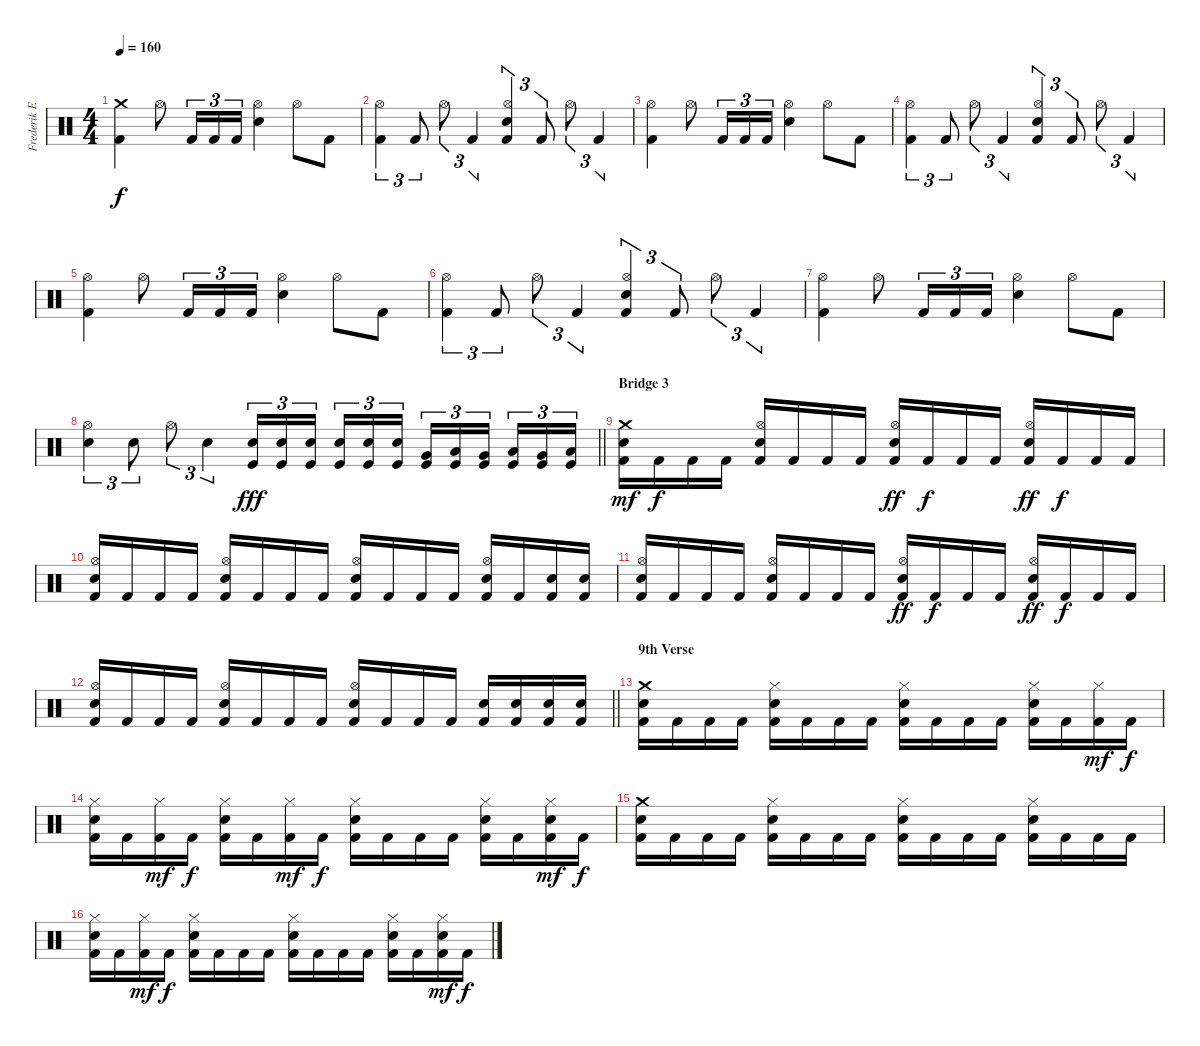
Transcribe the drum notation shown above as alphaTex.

\track ("Frederik Ehmke" "Frederik E") {instrument percussion}
\staff {score}
\articulation defaults
\ts (4 4)
\tempo 160
\clef neutral
\ks c
("Crash medium (hit)" "Kick (hit) 2").4{dy f} "Hi-Hat (open)".8 "Kick (hit) 2".16{tu (3 2)} "Kick (hit) 2".16{tu (3 2)} "Kick (hit) 2".16{tu (3 2)} ("Hi-Hat (open)" "Electric Snare (hit)").4 "Hi-Hat (open)".8 "Kick (hit) 2".8 |
("Hi-Hat (open)" "Kick (hit) 2").4{tu (3 2)} "Kick (hit) 2".8{tu (3 2)} "Hi-Hat (open)".8{tu (3 2)} "Kick (hit) 2".4{tu (3 2)} ("Hi-Hat (open)" "Electric Snare (hit)" "Kick (hit) 2").4{tu (3 2)} "Kick (hit) 2".8{tu (3 2)} "Hi-Hat (open)".8{tu (3 2)} "Kick (hit) 2".4{tu (3 2)} |
("Hi-Hat (open)" "Kick (hit) 2").4 "Hi-Hat (open)".8 "Kick (hit) 2".16{tu (3 2)} "Kick (hit) 2".16{tu (3 2)} "Kick (hit) 2".16{tu (3 2)} ("Hi-Hat (open)" "Electric Snare (hit)").4 "Hi-Hat (open)".8 "Kick (hit) 2".8 |
("Hi-Hat (open)" "Kick (hit) 2").4{tu (3 2)} "Kick (hit) 2".8{tu (3 2)} "Hi-Hat (open)".8{tu (3 2)} "Kick (hit) 2".4{tu (3 2)} ("Hi-Hat (open)" "Electric Snare (hit)" "Kick (hit) 2").4{tu (3 2)} "Kick (hit) 2".8{tu (3 2)} "Hi-Hat (open)".8{tu (3 2)} "Kick (hit) 2".4{tu (3 2)} |
("Hi-Hat (open)" "Kick (hit) 2").4 "Hi-Hat (open)".8 "Kick (hit) 2".16{tu (3 2)} "Kick (hit) 2".16{tu (3 2)} "Kick (hit) 2".16{tu (3 2)} ("Hi-Hat (open)" "Electric Snare (hit)").4 "Hi-Hat (open)".8 "Kick (hit) 2".8 |
("Hi-Hat (open)" "Kick (hit) 2").4{tu (3 2)} "Kick (hit) 2".8{tu (3 2)} "Hi-Hat (open)".8{tu (3 2)} "Kick (hit) 2".4{tu (3 2)} ("Hi-Hat (open)" "Electric Snare (hit)" "Kick (hit) 2").4{tu (3 2)} "Kick (hit) 2".8{tu (3 2)} "Hi-Hat (open)".8{tu (3 2)} "Kick (hit) 2".4{tu (3 2)} |
("Hi-Hat (open)" "Kick (hit) 2").4 "Hi-Hat (open)".8 "Kick (hit) 2".16{tu (3 2)} "Kick (hit) 2".16{tu (3 2)} "Kick (hit) 2".16{tu (3 2)} ("Hi-Hat (open)" "Electric Snare (hit)").4 "Hi-Hat (open)".8 "Kick (hit) 2".8 |
\barLineRight lightlight
("Hi-Hat (open)" "Electric Snare (hit)").4{tu (3 2)} "Electric Snare (hit)".8{tu (3 2)} "Hi-Hat (open)".8{tu (3 2)} "Electric Snare (hit)".4{tu (3 2)} ("Electric Snare (hit)" "Kick (hit)").16{tu (3 2) dy fff} ("Electric Snare (hit)" "Kick (hit)").16{tu (3 2)} ("Electric Snare (hit)" "Kick (hit)").16{tu (3 2) beam splitsecondary} ("Electric Snare (hit)" "Kick (hit)").16{tu (3 2)} ("Electric Snare (hit)" "Kick (hit)").16{tu (3 2)} ("Electric Snare (hit)" "Kick (hit)").16{tu (3 2)} ("Very Low Tom (hit)" "Kick (hit)").16{tu (3 2)} ("Low Floor Tom (hit)" "Kick (hit)").16{tu (3 2)} ("Very Low Tom (hit)" "Kick (hit)").16{tu (3 2) beam splitsecondary} ("Low Floor Tom (hit)" "Kick (hit)").16{tu (3 2)} ("Very Low Tom (hit)" "Kick (hit)").16{tu (3 2)} ("Low Floor Tom (hit)" "Kick (hit)").16{tu (3 2)} |
\section ("" "Bridge 3")
("Crash medium (hit)" "Electric Snare (hit)" "Kick (hit) 2").16{dy mf} "Kick (hit) 2".16{dy f} "Kick (hit) 2".16 "Kick (hit) 2".16 ("Hi-Hat (open)" "Electric Snare (hit)" "Kick (hit) 2").16 "Kick (hit) 2".16 "Kick (hit) 2".16 "Kick (hit) 2".16 ("Hi-Hat (open)" "Electric Snare (hit)" "Kick (hit) 2").16{dy ff} "Kick (hit) 2".16{dy f} "Kick (hit) 2".16 "Kick (hit) 2".16 ("Hi-Hat (open)" "Electric Snare (hit)" "Kick (hit) 2").16{dy ff} "Kick (hit) 2".16{dy f} "Kick (hit) 2".16 "Kick (hit) 2".16 |
("Hi-Hat (open)" "Electric Snare (hit)" "Kick (hit) 2").16 "Kick (hit) 2".16 "Kick (hit) 2".16 "Kick (hit) 2".16 ("Hi-Hat (open)" "Electric Snare (hit)" "Kick (hit) 2").16 "Kick (hit) 2".16 "Kick (hit) 2".16 "Kick (hit) 2".16 ("Hi-Hat (open)" "Electric Snare (hit)" "Kick (hit) 2").16 "Kick (hit) 2".16 "Kick (hit) 2".16 "Kick (hit) 2".16 ("Hi-Hat (open)" "Electric Snare (hit)" "Kick (hit) 2").16 "Kick (hit) 2".16 ("Electric Snare (hit)" "Kick (hit) 2").16 ("Electric Snare (hit)" "Kick (hit) 2").16 |
("Hi-Hat (open)" "Electric Snare (hit)" "Kick (hit) 2").16 "Kick (hit) 2".16 "Kick (hit) 2".16 "Kick (hit) 2".16 ("Hi-Hat (open)" "Electric Snare (hit)" "Kick (hit) 2").16 "Kick (hit) 2".16 "Kick (hit) 2".16 "Kick (hit) 2".16 ("Hi-Hat (open)" "Electric Snare (hit)" "Kick (hit) 2").16{dy ff} "Kick (hit) 2".16{dy f} "Kick (hit) 2".16 "Kick (hit) 2".16 ("Hi-Hat (open)" "Electric Snare (hit)" "Kick (hit) 2").16{dy ff} "Kick (hit) 2".16{dy f} "Kick (hit) 2".16 "Kick (hit) 2".16 |
\barLineRight lightlight
("Hi-Hat (open)" "Electric Snare (hit)" "Kick (hit) 2").16 "Kick (hit) 2".16 "Kick (hit) 2".16 "Kick (hit) 2".16 ("Hi-Hat (open)" "Electric Snare (hit)" "Kick (hit) 2").16 "Kick (hit) 2".16 "Kick (hit) 2".16 "Kick (hit) 2".16 ("Hi-Hat (open)" "Electric Snare (hit)" "Kick (hit) 2").16 "Kick (hit) 2".16 "Kick (hit) 2".16 "Kick (hit) 2".16 ("Electric Snare (hit)" "Kick (hit) 2").16 ("Electric Snare (hit)" "Kick (hit) 2").16 ("Electric Snare (hit)" "Kick (hit) 2").16 ("Electric Snare (hit)" "Kick (hit) 2").16 |
\section ("" "9th Verse")
("Crash medium (hit)" "Electric Snare (hit)" "Kick (hit) 2").16 "Kick (hit) 2".16 "Kick (hit) 2".16 "Kick (hit) 2".16 ("Hi-Hat (closed)" "Electric Snare (hit)" "Kick (hit) 2").16 "Kick (hit) 2".16 "Kick (hit) 2".16 "Kick (hit) 2".16 ("Hi-Hat (closed)" "Electric Snare (hit)" "Kick (hit) 2").16 "Kick (hit) 2".16 "Kick (hit) 2".16 "Kick (hit) 2".16 ("Hi-Hat (closed)" "Electric Snare (hit)" "Kick (hit) 2").16 "Kick (hit) 2".16 ("Hi-Hat (closed)" "Kick (hit) 2").16{dy mf} "Kick (hit) 2".16{dy f} |
("Hi-Hat (closed)" "Electric Snare (hit)" "Kick (hit) 2").16 "Kick (hit) 2".16 ("Hi-Hat (closed)" "Kick (hit) 2").16{dy mf} "Kick (hit) 2".16{dy f} ("Hi-Hat (closed)" "Electric Snare (hit)" "Kick (hit) 2").16 "Kick (hit) 2".16 ("Hi-Hat (closed)" "Kick (hit) 2").16{dy mf} "Kick (hit) 2".16{dy f} ("Hi-Hat (closed)" "Electric Snare (hit)" "Kick (hit) 2").16 "Kick (hit) 2".16 "Kick (hit) 2".16 "Kick (hit) 2".16 ("Hi-Hat (closed)" "Electric Snare (hit)" "Kick (hit) 2").16 "Kick (hit) 2".16 ("Hi-Hat (closed)" "Electric Snare (hit)" "Kick (hit) 2").16{dy mf} "Kick (hit) 2".16{dy f} |
("Crash medium (hit)" "Electric Snare (hit)" "Kick (hit) 2").16 "Kick (hit) 2".16 "Kick (hit) 2".16 "Kick (hit) 2".16 ("Hi-Hat (closed)" "Electric Snare (hit)" "Kick (hit) 2").16 "Kick (hit) 2".16 "Kick (hit) 2".16 "Kick (hit) 2".16 ("Hi-Hat (closed)" "Electric Snare (hit)" "Kick (hit) 2").16 "Kick (hit) 2".16 "Kick (hit) 2".16 "Kick (hit) 2".16 ("Hi-Hat (closed)" "Electric Snare (hit)" "Kick (hit) 2").16 "Kick (hit) 2".16 "Kick (hit) 2".16 "Kick (hit) 2".16 |
("Hi-Hat (closed)" "Electric Snare (hit)" "Kick (hit) 2").16 "Kick (hit) 2".16 ("Hi-Hat (closed)" "Kick (hit) 2").16{dy mf} "Kick (hit) 2".16{dy f} ("Hi-Hat (closed)" "Electric Snare (hit)" "Kick (hit) 2").16 "Kick (hit) 2".16 "Kick (hit) 2".16 "Kick (hit) 2".16 ("Hi-Hat (closed)" "Electric Snare (hit)" "Kick (hit) 2").16 "Kick (hit) 2".16 "Kick (hit) 2".16 "Kick (hit) 2".16 ("Hi-Hat (closed)" "Electric Snare (hit)" "Kick (hit) 2").16 "Kick (hit) 2".16 ("Hi-Hat (closed)" "Electric Snare (hit)" "Kick (hit) 2").16{dy mf} "Kick (hit) 2".16{dy f}
